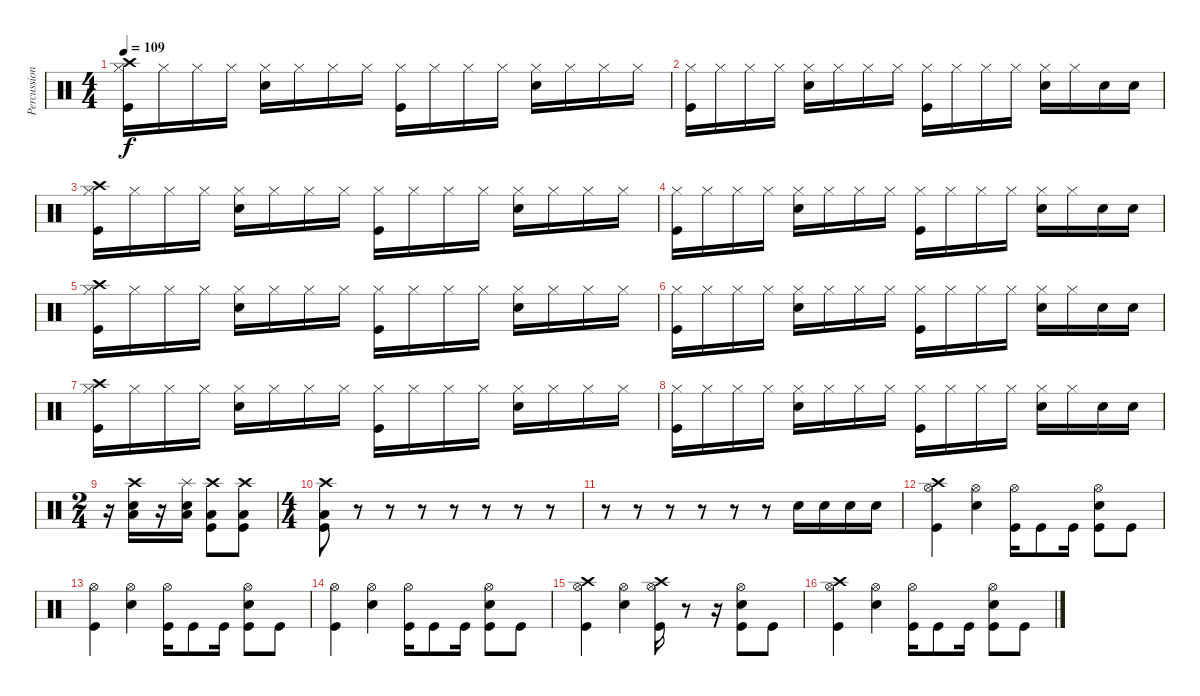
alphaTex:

\track ("Percussion" "Percussion") {instrument percussion}
\staff {score}
\articulation defaults
\ts (4 4)
\tempo 109
\clef neutral
\ks c
("Crash high (hit)" "Hi-Hat (closed)" "Kick (hit)").16{dy f} "Hi-Hat (closed)".16 "Hi-Hat (closed)".16 "Hi-Hat (closed)".16 ("Hi-Hat (closed)" "Electric Snare (hit)").16 "Hi-Hat (closed)".16 "Hi-Hat (closed)".16 "Hi-Hat (closed)".16 ("Hi-Hat (closed)" "Kick (hit)").16 "Hi-Hat (closed)".16 "Hi-Hat (closed)".16 "Hi-Hat (closed)".16 ("Hi-Hat (closed)" "Electric Snare (hit)").16 "Hi-Hat (closed)".16 "Hi-Hat (closed)".16 "Hi-Hat (closed)".16 |
("Hi-Hat (closed)" "Kick (hit)").16 "Hi-Hat (closed)".16 "Hi-Hat (closed)".16 "Hi-Hat (closed)".16 ("Hi-Hat (closed)" "Electric Snare (hit)").16 "Hi-Hat (closed)".16 "Hi-Hat (closed)".16 "Hi-Hat (closed)".16 ("Hi-Hat (closed)" "Kick (hit)").16 "Hi-Hat (closed)".16 "Hi-Hat (closed)".16 "Hi-Hat (closed)".16 ("Hi-Hat (closed)" "Electric Snare (hit)").16 "Hi-Hat (closed)".16 "Electric Snare (hit)".16 "Electric Snare (hit)".16 |
("Crash high (hit)" "Hi-Hat (closed)" "Kick (hit)").16 "Hi-Hat (closed)".16 "Hi-Hat (closed)".16 "Hi-Hat (closed)".16 ("Hi-Hat (closed)" "Electric Snare (hit)").16 "Hi-Hat (closed)".16 "Hi-Hat (closed)".16 "Hi-Hat (closed)".16 ("Hi-Hat (closed)" "Kick (hit)").16 "Hi-Hat (closed)".16 "Hi-Hat (closed)".16 "Hi-Hat (closed)".16 ("Hi-Hat (closed)" "Electric Snare (hit)").16 "Hi-Hat (closed)".16 "Hi-Hat (closed)".16 "Hi-Hat (closed)".16 |
("Hi-Hat (closed)" "Kick (hit)").16 "Hi-Hat (closed)".16 "Hi-Hat (closed)".16 "Hi-Hat (closed)".16 ("Hi-Hat (closed)" "Electric Snare (hit)").16 "Hi-Hat (closed)".16 "Hi-Hat (closed)".16 "Hi-Hat (closed)".16 ("Hi-Hat (closed)" "Kick (hit)").16 "Hi-Hat (closed)".16 "Hi-Hat (closed)".16 "Hi-Hat (closed)".16 ("Hi-Hat (closed)" "Electric Snare (hit)").16 "Hi-Hat (closed)".16 "Electric Snare (hit)".16 "Electric Snare (hit)".16 |
("Crash high (hit)" "Hi-Hat (closed)" "Kick (hit)").16 "Hi-Hat (closed)".16 "Hi-Hat (closed)".16 "Hi-Hat (closed)".16 ("Hi-Hat (closed)" "Electric Snare (hit)").16 "Hi-Hat (closed)".16 "Hi-Hat (closed)".16 "Hi-Hat (closed)".16 ("Hi-Hat (closed)" "Kick (hit)").16 "Hi-Hat (closed)".16 "Hi-Hat (closed)".16 "Hi-Hat (closed)".16 ("Hi-Hat (closed)" "Electric Snare (hit)").16 "Hi-Hat (closed)".16 "Hi-Hat (closed)".16 "Hi-Hat (closed)".16 |
("Hi-Hat (closed)" "Kick (hit)").16 "Hi-Hat (closed)".16 "Hi-Hat (closed)".16 "Hi-Hat (closed)".16 ("Hi-Hat (closed)" "Electric Snare (hit)").16 "Hi-Hat (closed)".16 "Hi-Hat (closed)".16 "Hi-Hat (closed)".16 ("Hi-Hat (closed)" "Kick (hit)").16 "Hi-Hat (closed)".16 "Hi-Hat (closed)".16 "Hi-Hat (closed)".16 ("Hi-Hat (closed)" "Electric Snare (hit)").16 "Hi-Hat (closed)".16 "Electric Snare (hit)".16 "Electric Snare (hit)".16 |
("Crash high (hit)" "Hi-Hat (closed)" "Kick (hit)").16 "Hi-Hat (closed)".16 "Hi-Hat (closed)".16 "Hi-Hat (closed)".16 ("Hi-Hat (closed)" "Electric Snare (hit)").16 "Hi-Hat (closed)".16 "Hi-Hat (closed)".16 "Hi-Hat (closed)".16 ("Hi-Hat (closed)" "Kick (hit)").16 "Hi-Hat (closed)".16 "Hi-Hat (closed)".16 "Hi-Hat (closed)".16 ("Hi-Hat (closed)" "Electric Snare (hit)").16 "Hi-Hat (closed)".16 "Hi-Hat (closed)".16 "Hi-Hat (closed)".16 |
("Hi-Hat (closed)" "Kick (hit)").16 "Hi-Hat (closed)".16 "Hi-Hat (closed)".16 "Hi-Hat (closed)".16 ("Hi-Hat (closed)" "Electric Snare (hit)").16 "Hi-Hat (closed)".16 "Hi-Hat (closed)".16 "Hi-Hat (closed)".16 ("Hi-Hat (closed)" "Kick (hit)").16 "Hi-Hat (closed)".16 "Hi-Hat (closed)".16 "Hi-Hat (closed)".16 ("Hi-Hat (closed)" "Electric Snare (hit)").16 "Hi-Hat (closed)".16 "Electric Snare (hit)".16 "Electric Snare (hit)".16 |
\ts (2 4)
r.16 ("Crash high (hit)" "Electric Snare (hit)" "Low Floor Tom (hit)").16 r.16 ("Splash (hit)" "Electric Snare (hit)" "Low Floor Tom (hit)").16 ("Crash high (hit)" "Kick (hit)" "Low Floor Tom (hit)").8 ("Crash high (hit)" "Kick (hit)" "Low Floor Tom (hit)").8 |
\ts (4 4)
("Crash high (hit)" "Low Floor Tom (hit)" "Kick (hit)").8 r.8 r.8 r.8 r.8 r.8 r.8 r.8 |
r.8 r.8 r.8 r.8 r.8 r.8 "Electric Snare (hit)".16 "Electric Snare (hit)".16 "Electric Snare (hit)".16 "Electric Snare (hit)".16 |
("Crash high (hit)" "Hi-Hat (open)" "Kick (hit)").4 ("Hi-Hat (open)" "Electric Snare (hit)").4 ("Hi-Hat (open)" "Kick (hit)").16 "Kick (hit)".8 "Kick (hit)".16 ("Hi-Hat (open)" "Electric Snare (hit)" "Kick (hit)").8 "Kick (hit)".8 |
("Hi-Hat (open)" "Kick (hit)").4 ("Hi-Hat (open)" "Electric Snare (hit)").4 ("Hi-Hat (open)" "Kick (hit)").16 "Kick (hit)".8 "Kick (hit)".16 ("Hi-Hat (open)" "Electric Snare (hit)" "Kick (hit)").8 "Kick (hit)".8 |
("Hi-Hat (open)" "Kick (hit)").4 ("Hi-Hat (open)" "Electric Snare (hit)").4 ("Hi-Hat (open)" "Kick (hit)").16 "Kick (hit)".8 "Kick (hit)".16 ("Hi-Hat (open)" "Electric Snare (hit)" "Kick (hit)").8 "Kick (hit)".8 |
("Crash high (hit)" "Hi-Hat (open)" "Kick (hit)").4 ("Hi-Hat (open)" "Electric Snare (hit)").4 ("Hi-Hat (open)" "Crash high (hit)" "Kick (hit)").16 r.8 r.16 ("Hi-Hat (open)" "Electric Snare (hit)" "Kick (hit)").8 "Kick (hit)".8 |
("Crash high (hit)" "Hi-Hat (open)" "Kick (hit)").4 ("Hi-Hat (open)" "Electric Snare (hit)").4 ("Hi-Hat (open)" "Kick (hit)").16 "Kick (hit)".8 "Kick (hit)".16 ("Hi-Hat (open)" "Electric Snare (hit)" "Kick (hit)").8 "Kick (hit)".8
